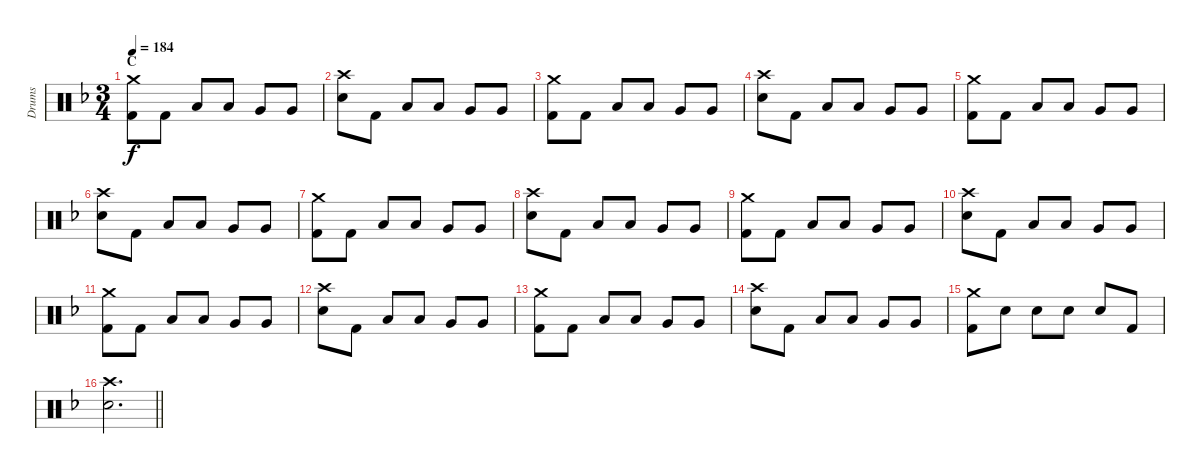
\track ("Drums" "Drums") {instrument percussion}
\staff {score}
\articulation defaults
\ts (3 4)
\section ("" "C")
\tempo 184
\clef neutral
\ks f
("Crash medium (hit)" "Kick (hit) 2").8{dy f} "Kick (hit) 2".8 "Low Tom (hit)".8 "Low Tom (hit)".8 "Very Low Tom (hit)".8 "Very Low Tom (hit)".8 |
("Crash high (hit)" "Electric Snare (hit)").8 "Kick (hit) 2".8 "Low Tom (hit)".8 "Low Tom (hit)".8 "Very Low Tom (hit)".8 "Very Low Tom (hit)".8 |
("Crash medium (hit)" "Kick (hit) 2").8 "Kick (hit) 2".8 "Low Tom (hit)".8 "Low Tom (hit)".8 "Very Low Tom (hit)".8 "Very Low Tom (hit)".8 |
("Crash high (hit)" "Electric Snare (hit)").8 "Kick (hit) 2".8 "Low Tom (hit)".8 "Low Tom (hit)".8 "Very Low Tom (hit)".8 "Very Low Tom (hit)".8 |
("Crash medium (hit)" "Kick (hit) 2").8 "Kick (hit) 2".8 "Low Tom (hit)".8 "Low Tom (hit)".8 "Very Low Tom (hit)".8 "Very Low Tom (hit)".8 |
("Crash high (hit)" "Electric Snare (hit)").8 "Kick (hit) 2".8 "Low Tom (hit)".8 "Low Tom (hit)".8 "Very Low Tom (hit)".8 "Very Low Tom (hit)".8 |
("Crash medium (hit)" "Kick (hit) 2").8 "Kick (hit) 2".8 "Low Tom (hit)".8 "Low Tom (hit)".8 "Very Low Tom (hit)".8 "Very Low Tom (hit)".8 |
("Crash high (hit)" "Electric Snare (hit)").8 "Kick (hit) 2".8 "Low Tom (hit)".8 "Low Tom (hit)".8 "Very Low Tom (hit)".8 "Very Low Tom (hit)".8 |
("Crash medium (hit)" "Kick (hit) 2").8 "Kick (hit) 2".8 "Low Tom (hit)".8 "Low Tom (hit)".8 "Very Low Tom (hit)".8 "Very Low Tom (hit)".8 |
("Crash high (hit)" "Electric Snare (hit)").8 "Kick (hit) 2".8 "Low Tom (hit)".8 "Low Tom (hit)".8 "Very Low Tom (hit)".8 "Very Low Tom (hit)".8 |
("Crash medium (hit)" "Kick (hit) 2").8 "Kick (hit) 2".8 "Low Tom (hit)".8 "Low Tom (hit)".8 "Very Low Tom (hit)".8 "Very Low Tom (hit)".8 |
("Crash high (hit)" "Electric Snare (hit)").8 "Kick (hit) 2".8 "Low Tom (hit)".8 "Low Tom (hit)".8 "Very Low Tom (hit)".8 "Very Low Tom (hit)".8 |
("Crash medium (hit)" "Kick (hit) 2").8 "Kick (hit) 2".8 "Low Tom (hit)".8 "Low Tom (hit)".8 "Very Low Tom (hit)".8 "Very Low Tom (hit)".8 |
("Crash high (hit)" "Electric Snare (hit)").8 "Kick (hit) 2".8 "Low Tom (hit)".8 "Low Tom (hit)".8 "Very Low Tom (hit)".8 "Very Low Tom (hit)".8 |
("Crash medium (hit)" "Kick (hit) 2").8 "Electric Snare (hit)".8 "Electric Snare (hit)".8 "Electric Snare (hit)".8 "Electric Snare (hit)".8 "Kick (hit) 2".8 |
\barLineRight lightlight
("Crash high (hit)" "Electric Snare (hit)").2{d}
